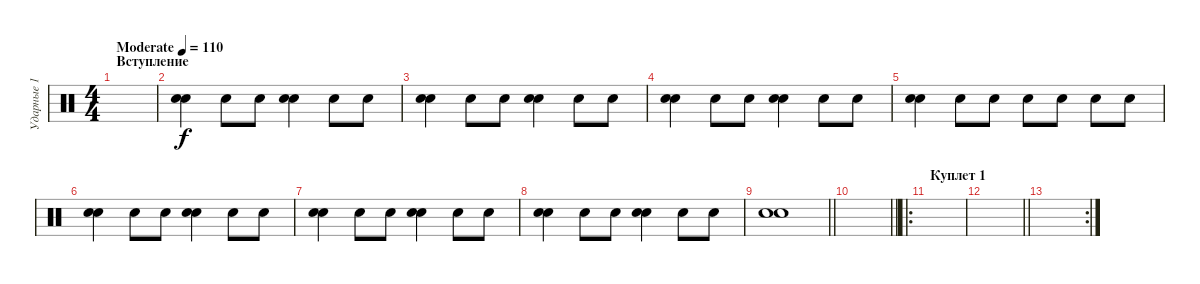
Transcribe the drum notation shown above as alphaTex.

\track ("Ударные 1" "Ударные 1") {instrument percussion}
\staff {score}
\articulation defaults
\ts (4 4)
\section ("" "Вступление")
\tempo (110 "Moderate")
\clef neutral
\ks c
|
("Snare (hit) 2" "Electric Snare (hit)").4 "Electric Snare (hit)".8 "Electric Snare (hit)".8 ("Snare (hit) 2" "Electric Snare (hit)").4 "Electric Snare (hit)".8 "Electric Snare (hit)".8 |
("Snare (hit) 2" "Electric Snare (hit)").4 "Electric Snare (hit)".8 "Electric Snare (hit)".8 ("Snare (hit) 2" "Electric Snare (hit)").4 "Electric Snare (hit)".8 "Electric Snare (hit)".8 |
("Snare (hit) 2" "Electric Snare (hit)").4 "Electric Snare (hit)".8 "Electric Snare (hit)".8 ("Snare (hit) 2" "Electric Snare (hit)").4 "Electric Snare (hit)".8 "Electric Snare (hit)".8 |
("Snare (hit) 2" "Electric Snare (hit)").4 "Electric Snare (hit)".8 "Electric Snare (hit)".8 "Electric Snare (hit)".8 "Electric Snare (hit)".8 "Electric Snare (hit)".8 "Electric Snare (hit)".8 |
("Snare (hit) 2" "Electric Snare (hit)").4 "Electric Snare (hit)".8 "Electric Snare (hit)".8 ("Snare (hit) 2" "Electric Snare (hit)").4 "Electric Snare (hit)".8 "Electric Snare (hit)".8 |
("Snare (hit) 2" "Electric Snare (hit)").4 "Electric Snare (hit)".8 "Electric Snare (hit)".8 ("Snare (hit) 2" "Electric Snare (hit)").4 "Electric Snare (hit)".8 "Electric Snare (hit)".8 |
("Snare (hit) 2" "Electric Snare (hit)").4 "Electric Snare (hit)".8 "Electric Snare (hit)".8 ("Snare (hit) 2" "Electric Snare (hit)").4 "Electric Snare (hit)".8 "Electric Snare (hit)".8 |
\barLineRight lightlight
("Snare (hit) 2" "Electric Snare (hit)").1 |
\barLineRight lightlight
|
\ro
\section ("" "Куплет 1")
|
\barLineRight lightlight
|
\rc 2
